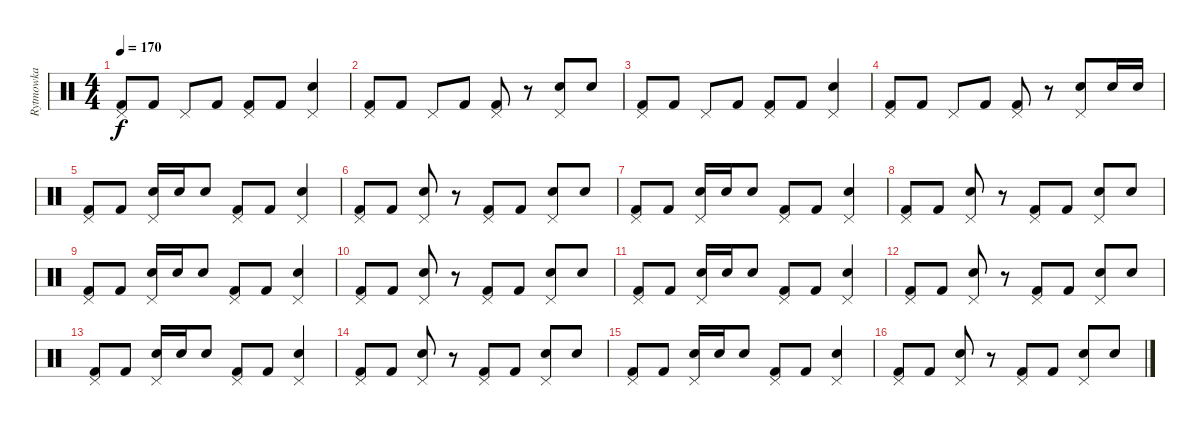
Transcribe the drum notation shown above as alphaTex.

\track ("Rytmowka" "Rytmowka") {instrument percussion}
\staff {score}
\articulation defaults
\ts (4 4)
\tempo 170
\clef neutral
\ks c
("Pedal Hi-Hat (hit)" "Kick (hit) 2").8{dy f} "Kick (hit) 2".8 "Pedal Hi-Hat (hit)".8 "Kick (hit) 2".8 ("Pedal Hi-Hat (hit)" "Kick (hit) 2").8 "Kick (hit) 2".8 ("Pedal Hi-Hat (hit)" "Snare (hit) 2").4 |
("Pedal Hi-Hat (hit)" "Kick (hit) 2").8 "Kick (hit) 2".8 "Pedal Hi-Hat (hit)".8 "Kick (hit) 2".8 ("Pedal Hi-Hat (hit)" "Kick (hit) 2").8 r.8 ("Pedal Hi-Hat (hit)" "Snare (hit) 2").8 "Snare (hit) 2".8 |
("Pedal Hi-Hat (hit)" "Kick (hit) 2").8 "Kick (hit) 2".8 "Pedal Hi-Hat (hit)".8 "Kick (hit) 2".8 ("Pedal Hi-Hat (hit)" "Kick (hit) 2").8 "Kick (hit) 2".8 ("Pedal Hi-Hat (hit)" "Snare (hit) 2").4 |
("Pedal Hi-Hat (hit)" "Kick (hit) 2").8 "Kick (hit) 2".8 "Pedal Hi-Hat (hit)".8 "Kick (hit) 2".8 ("Pedal Hi-Hat (hit)" "Kick (hit) 2").8 r.8 ("Pedal Hi-Hat (hit)" "Snare (hit) 2").8 "Snare (hit) 2".16 "Snare (hit) 2".16 |
("Pedal Hi-Hat (hit)" "Kick (hit) 2").8 "Kick (hit) 2".8 ("Pedal Hi-Hat (hit)" "Snare (hit) 2").16 "Snare (hit) 2".16 "Snare (hit) 2".8 ("Pedal Hi-Hat (hit)" "Kick (hit) 2").8 "Kick (hit) 2".8 ("Pedal Hi-Hat (hit)" "Snare (hit) 2").4 |
("Pedal Hi-Hat (hit)" "Kick (hit) 2").8 "Kick (hit) 2".8 ("Pedal Hi-Hat (hit)" "Snare (hit) 2").8 r.8 ("Pedal Hi-Hat (hit)" "Kick (hit) 2").8 "Kick (hit) 2".8 ("Pedal Hi-Hat (hit)" "Snare (hit) 2").8 "Snare (hit) 2".8 |
("Pedal Hi-Hat (hit)" "Kick (hit) 2").8 "Kick (hit) 2".8 ("Pedal Hi-Hat (hit)" "Snare (hit) 2").16 "Snare (hit) 2".16 "Snare (hit) 2".8 ("Pedal Hi-Hat (hit)" "Kick (hit) 2").8 "Kick (hit) 2".8 ("Pedal Hi-Hat (hit)" "Snare (hit) 2").4 |
("Pedal Hi-Hat (hit)" "Kick (hit) 2").8 "Kick (hit) 2".8 ("Pedal Hi-Hat (hit)" "Snare (hit) 2").8 r.8 ("Pedal Hi-Hat (hit)" "Kick (hit) 2").8 "Kick (hit) 2".8 ("Pedal Hi-Hat (hit)" "Snare (hit) 2").8 "Snare (hit) 2".8 |
("Pedal Hi-Hat (hit)" "Kick (hit) 2").8 "Kick (hit) 2".8 ("Pedal Hi-Hat (hit)" "Snare (hit) 2").16 "Snare (hit) 2".16 "Snare (hit) 2".8 ("Pedal Hi-Hat (hit)" "Kick (hit) 2").8 "Kick (hit) 2".8 ("Pedal Hi-Hat (hit)" "Snare (hit) 2").4 |
("Pedal Hi-Hat (hit)" "Kick (hit) 2").8 "Kick (hit) 2".8 ("Pedal Hi-Hat (hit)" "Snare (hit) 2").8 r.8 ("Pedal Hi-Hat (hit)" "Kick (hit) 2").8 "Kick (hit) 2".8 ("Pedal Hi-Hat (hit)" "Snare (hit) 2").8 "Snare (hit) 2".8 |
("Pedal Hi-Hat (hit)" "Kick (hit) 2").8 "Kick (hit) 2".8 ("Pedal Hi-Hat (hit)" "Snare (hit) 2").16 "Snare (hit) 2".16 "Snare (hit) 2".8 ("Pedal Hi-Hat (hit)" "Kick (hit) 2").8 "Kick (hit) 2".8 ("Pedal Hi-Hat (hit)" "Snare (hit) 2").4 |
("Pedal Hi-Hat (hit)" "Kick (hit) 2").8 "Kick (hit) 2".8 ("Pedal Hi-Hat (hit)" "Snare (hit) 2").8 r.8 ("Pedal Hi-Hat (hit)" "Kick (hit) 2").8 "Kick (hit) 2".8 ("Pedal Hi-Hat (hit)" "Snare (hit) 2").8 "Snare (hit) 2".8 |
("Pedal Hi-Hat (hit)" "Kick (hit) 2").8 "Kick (hit) 2".8 ("Pedal Hi-Hat (hit)" "Snare (hit) 2").16 "Snare (hit) 2".16 "Snare (hit) 2".8 ("Pedal Hi-Hat (hit)" "Kick (hit) 2").8 "Kick (hit) 2".8 ("Pedal Hi-Hat (hit)" "Snare (hit) 2").4 |
("Pedal Hi-Hat (hit)" "Kick (hit) 2").8 "Kick (hit) 2".8 ("Pedal Hi-Hat (hit)" "Snare (hit) 2").8 r.8 ("Pedal Hi-Hat (hit)" "Kick (hit) 2").8 "Kick (hit) 2".8 ("Pedal Hi-Hat (hit)" "Snare (hit) 2").8 "Snare (hit) 2".8 |
("Pedal Hi-Hat (hit)" "Kick (hit) 2").8 "Kick (hit) 2".8 ("Pedal Hi-Hat (hit)" "Snare (hit) 2").16 "Snare (hit) 2".16 "Snare (hit) 2".8 ("Pedal Hi-Hat (hit)" "Kick (hit) 2").8 "Kick (hit) 2".8 ("Pedal Hi-Hat (hit)" "Snare (hit) 2").4 |
("Pedal Hi-Hat (hit)" "Kick (hit) 2").8 "Kick (hit) 2".8 ("Pedal Hi-Hat (hit)" "Snare (hit) 2").8 r.8 ("Pedal Hi-Hat (hit)" "Kick (hit) 2").8 "Kick (hit) 2".8 ("Pedal Hi-Hat (hit)" "Snare (hit) 2").8 "Snare (hit) 2".8
